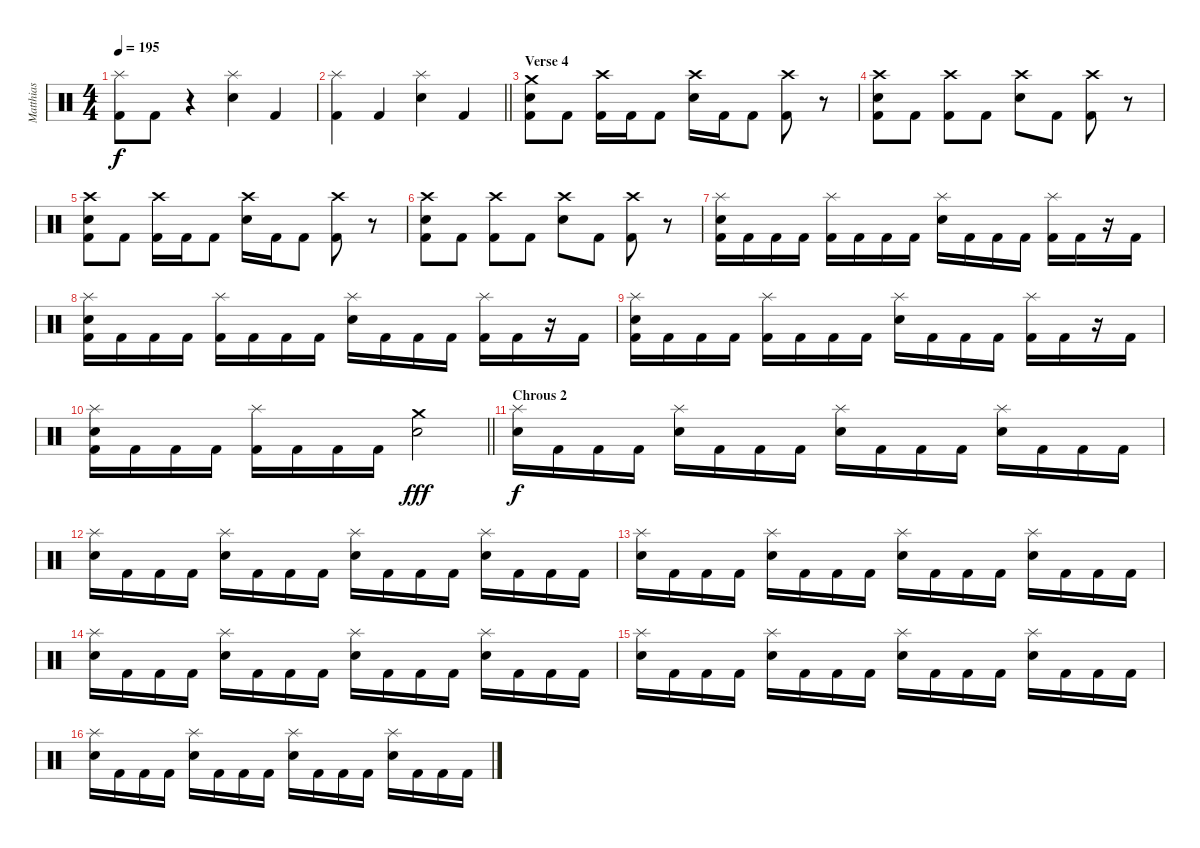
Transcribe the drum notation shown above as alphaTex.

\track ("Matthias" "Matthias") {instrument percussion}
\staff {score}
\articulation defaults
\ts (4 4)
\tempo 195
\clef neutral
\ks c
("Splash (hit)" "Kick (hit) 2").8{dy f} "Kick (hit) 2".8 r.4 ("Splash (hit)" "Electric Snare (hit)").4 "Kick (hit) 2".4 |
\barLineRight lightlight
("Splash (hit)" "Kick (hit) 2").4 "Kick (hit) 2".4 ("Splash (hit)" "Electric Snare (hit)").4 "Kick (hit) 2".4 |
\section ("" "Verse 4")
("Crash medium (hit)" "Electric Snare (hit)" "Kick (hit) 2").8 "Kick (hit) 2".8 ("Crash high (hit)" "Kick (hit) 2").16 "Kick (hit) 2".16 "Kick (hit) 2".8 ("Crash high (hit)" "Electric Snare (hit)").16 "Kick (hit) 2".16 "Kick (hit) 2".8 ("Crash high (hit)" "Kick (hit) 2").8 r.8 |
("Crash high (hit)" "Electric Snare (hit)" "Kick (hit) 2").8 "Kick (hit) 2".8 ("Crash high (hit)" "Kick (hit) 2").8 "Kick (hit) 2".8 ("Crash high (hit)" "Electric Snare (hit)").8 "Kick (hit) 2".8 ("Crash high (hit)" "Kick (hit) 2").8 r.8 |
("Crash high (hit)" "Electric Snare (hit)" "Kick (hit) 2").8 "Kick (hit) 2".8 ("Crash high (hit)" "Kick (hit) 2").16 "Kick (hit) 2".16 "Kick (hit) 2".8 ("Crash high (hit)" "Electric Snare (hit)").16 "Kick (hit) 2".16 "Kick (hit) 2".8 ("Crash high (hit)" "Kick (hit) 2").8 r.8 |
("Crash high (hit)" "Electric Snare (hit)" "Kick (hit) 2").8 "Kick (hit) 2".8 ("Crash high (hit)" "Kick (hit) 2").8 "Kick (hit) 2".8 ("Crash high (hit)" "Electric Snare (hit)").8 "Kick (hit) 2".8 ("Crash high (hit)" "Kick (hit) 2").8 r.8 |
("Splash (hit)" "Electric Snare (hit)" "Kick (hit) 2").16 "Kick (hit) 2".16 "Kick (hit) 2".16 "Kick (hit) 2".16 ("Splash (hit)" "Kick (hit) 2").16 "Kick (hit) 2".16 "Kick (hit) 2".16 "Kick (hit) 2".16 ("Splash (hit)" "Electric Snare (hit)").16 "Kick (hit) 2".16 "Kick (hit) 2".16 "Kick (hit) 2".16 ("Splash (hit)" "Kick (hit) 2").16 "Kick (hit) 2".16 r.16 "Kick (hit) 2".16 |
("Splash (hit)" "Electric Snare (hit)" "Kick (hit) 2").16 "Kick (hit) 2".16 "Kick (hit) 2".16 "Kick (hit) 2".16 ("Splash (hit)" "Kick (hit) 2").16 "Kick (hit) 2".16 "Kick (hit) 2".16 "Kick (hit) 2".16 ("Splash (hit)" "Electric Snare (hit)").16 "Kick (hit) 2".16 "Kick (hit) 2".16 "Kick (hit) 2".16 ("Splash (hit)" "Kick (hit) 2").16 "Kick (hit) 2".16 r.16 "Kick (hit) 2".16 |
("Splash (hit)" "Electric Snare (hit)" "Kick (hit) 2").16 "Kick (hit) 2".16 "Kick (hit) 2".16 "Kick (hit) 2".16 ("Splash (hit)" "Kick (hit) 2").16 "Kick (hit) 2".16 "Kick (hit) 2".16 "Kick (hit) 2".16 ("Splash (hit)" "Electric Snare (hit)").16 "Kick (hit) 2".16 "Kick (hit) 2".16 "Kick (hit) 2".16 ("Splash (hit)" "Kick (hit) 2").16 "Kick (hit) 2".16 r.16 "Kick (hit) 2".16 |
\barLineRight lightlight
("Splash (hit)" "Electric Snare (hit)" "Kick (hit) 2").16 "Kick (hit) 2".16 "Kick (hit) 2".16 "Kick (hit) 2".16 ("Splash (hit)" "Kick (hit) 2").16 "Kick (hit) 2".16 "Kick (hit) 2".16 "Kick (hit) 2".16 ("Crash medium (hit)" "Electric Snare (hit)").2{dy fff} |
\section ("" "Chrous 2")
("Splash (hit)" "Electric Snare (hit)").16{dy f} "Kick (hit) 2".16 "Kick (hit) 2".16 "Kick (hit) 2".16 ("Splash (hit)" "Electric Snare (hit)").16 "Kick (hit) 2".16 "Kick (hit) 2".16 "Kick (hit) 2".16 ("Splash (hit)" "Electric Snare (hit)").16 "Kick (hit) 2".16 "Kick (hit) 2".16 "Kick (hit) 2".16 ("Splash (hit)" "Electric Snare (hit)").16 "Kick (hit) 2".16 "Kick (hit) 2".16 "Kick (hit) 2".16 |
("Splash (hit)" "Electric Snare (hit)").16 "Kick (hit) 2".16 "Kick (hit) 2".16 "Kick (hit) 2".16 ("Splash (hit)" "Electric Snare (hit)").16 "Kick (hit) 2".16 "Kick (hit) 2".16 "Kick (hit) 2".16 ("Splash (hit)" "Electric Snare (hit)").16 "Kick (hit) 2".16 "Kick (hit) 2".16 "Kick (hit) 2".16 ("Splash (hit)" "Electric Snare (hit)").16 "Kick (hit) 2".16 "Kick (hit) 2".16 "Kick (hit) 2".16 |
("Splash (hit)" "Electric Snare (hit)").16 "Kick (hit) 2".16 "Kick (hit) 2".16 "Kick (hit) 2".16 ("Splash (hit)" "Electric Snare (hit)").16 "Kick (hit) 2".16 "Kick (hit) 2".16 "Kick (hit) 2".16 ("Splash (hit)" "Electric Snare (hit)").16 "Kick (hit) 2".16 "Kick (hit) 2".16 "Kick (hit) 2".16 ("Splash (hit)" "Electric Snare (hit)").16 "Kick (hit) 2".16 "Kick (hit) 2".16 "Kick (hit) 2".16 |
("Splash (hit)" "Electric Snare (hit)").16 "Kick (hit) 2".16 "Kick (hit) 2".16 "Kick (hit) 2".16 ("Splash (hit)" "Electric Snare (hit)").16 "Kick (hit) 2".16 "Kick (hit) 2".16 "Kick (hit) 2".16 ("Splash (hit)" "Electric Snare (hit)").16 "Kick (hit) 2".16 "Kick (hit) 2".16 "Kick (hit) 2".16 ("Splash (hit)" "Electric Snare (hit)").16 "Kick (hit) 2".16 "Kick (hit) 2".16 "Kick (hit) 2".16 |
("Splash (hit)" "Electric Snare (hit)").16 "Kick (hit) 2".16 "Kick (hit) 2".16 "Kick (hit) 2".16 ("Splash (hit)" "Electric Snare (hit)").16 "Kick (hit) 2".16 "Kick (hit) 2".16 "Kick (hit) 2".16 ("Splash (hit)" "Electric Snare (hit)").16 "Kick (hit) 2".16 "Kick (hit) 2".16 "Kick (hit) 2".16 ("Splash (hit)" "Electric Snare (hit)").16 "Kick (hit) 2".16 "Kick (hit) 2".16 "Kick (hit) 2".16 |
("Splash (hit)" "Electric Snare (hit)").16 "Kick (hit) 2".16 "Kick (hit) 2".16 "Kick (hit) 2".16 ("Splash (hit)" "Electric Snare (hit)").16 "Kick (hit) 2".16 "Kick (hit) 2".16 "Kick (hit) 2".16 ("Splash (hit)" "Electric Snare (hit)").16 "Kick (hit) 2".16 "Kick (hit) 2".16 "Kick (hit) 2".16 ("Splash (hit)" "Electric Snare (hit)").16 "Kick (hit) 2".16 "Kick (hit) 2".16 "Kick (hit) 2".16
